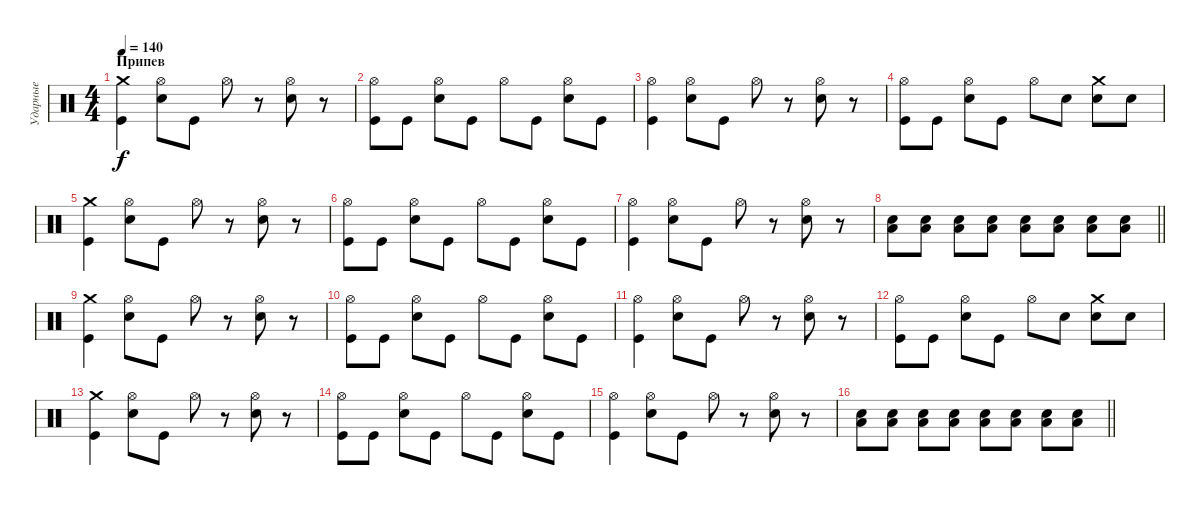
\track ("Ударные" "Ударные") {instrument percussion}
\staff {score}
\articulation defaults
\ts (4 4)
\section ("" "Припев")
\tempo 140
\clef neutral
\ks c
("Kick (hit)" "Crash medium (hit)").4{dy f} ("Electric Snare (hit)" "Hi-Hat (open)").8 "Kick (hit)".8 "Hi-Hat (open)".8 r.8 ("Electric Snare (hit)" "Hi-Hat (open)").8 r.8 |
("Kick (hit)" "Hi-Hat (open)").8 "Kick (hit)".8 ("Hi-Hat (open)" "Electric Snare (hit)").8 "Kick (hit)".8 "Hi-Hat (open)".8 "Kick (hit)".8 ("Electric Snare (hit)" "Hi-Hat (open)").8 "Kick (hit)".8 |
("Kick (hit)" "Hi-Hat (open)").4 ("Electric Snare (hit)" "Hi-Hat (open)").8 "Kick (hit)".8 "Hi-Hat (open)".8 r.8 ("Electric Snare (hit)" "Hi-Hat (open)").8 r.8 |
("Kick (hit)" "Hi-Hat (open)").8 "Kick (hit)".8 ("Hi-Hat (open)" "Electric Snare (hit)").8 "Kick (hit)".8 "Hi-Hat (open)".8 "Electric Snare (hit)".8 ("Electric Snare (hit)" "Crash medium (hit)").8 "Electric Snare (hit)".8 |
("Kick (hit)" "Crash medium (hit)").4 ("Electric Snare (hit)" "Hi-Hat (open)").8 "Kick (hit)".8 "Hi-Hat (open)".8 r.8 ("Electric Snare (hit)" "Hi-Hat (open)").8 r.8 |
("Kick (hit)" "Hi-Hat (open)").8 "Kick (hit)".8 ("Hi-Hat (open)" "Electric Snare (hit)").8 "Kick (hit)".8 "Hi-Hat (open)".8 "Kick (hit)".8 ("Electric Snare (hit)" "Hi-Hat (open)").8 "Kick (hit)".8 |
("Kick (hit)" "Hi-Hat (open)").4 ("Electric Snare (hit)" "Hi-Hat (open)").8 "Kick (hit)".8 "Hi-Hat (open)".8 r.8 ("Electric Snare (hit)" "Hi-Hat (open)").8 r.8 |
\barLineRight lightlight
("Low Floor Tom (hit)" "Electric Snare (hit)").8 ("Low Floor Tom (hit)" "Electric Snare (hit)").8 ("Low Floor Tom (hit)" "Electric Snare (hit)").8 ("Low Floor Tom (hit)" "Electric Snare (hit)").8 ("Low Floor Tom (hit)" "Electric Snare (hit)").8 ("Low Floor Tom (hit)" "Electric Snare (hit)").8 ("Low Floor Tom (hit)" "Electric Snare (hit)").8 ("Low Floor Tom (hit)" "Electric Snare (hit)").8 |
("Kick (hit)" "Crash medium (hit)").4 ("Electric Snare (hit)" "Hi-Hat (open)").8 "Kick (hit)".8 "Hi-Hat (open)".8 r.8 ("Electric Snare (hit)" "Hi-Hat (open)").8 r.8 |
("Kick (hit)" "Hi-Hat (open)").8 "Kick (hit)".8 ("Hi-Hat (open)" "Electric Snare (hit)").8 "Kick (hit)".8 "Hi-Hat (open)".8 "Kick (hit)".8 ("Electric Snare (hit)" "Hi-Hat (open)").8 "Kick (hit)".8 |
("Kick (hit)" "Hi-Hat (open)").4 ("Electric Snare (hit)" "Hi-Hat (open)").8 "Kick (hit)".8 "Hi-Hat (open)".8 r.8 ("Electric Snare (hit)" "Hi-Hat (open)").8 r.8 |
("Kick (hit)" "Hi-Hat (open)").8 "Kick (hit)".8 ("Hi-Hat (open)" "Electric Snare (hit)").8 "Kick (hit)".8 "Hi-Hat (open)".8 "Electric Snare (hit)".8 ("Electric Snare (hit)" "Crash medium (hit)").8 "Electric Snare (hit)".8 |
("Kick (hit)" "Crash medium (hit)").4 ("Electric Snare (hit)" "Hi-Hat (open)").8 "Kick (hit)".8 "Hi-Hat (open)".8 r.8 ("Electric Snare (hit)" "Hi-Hat (open)").8 r.8 |
("Kick (hit)" "Hi-Hat (open)").8 "Kick (hit)".8 ("Hi-Hat (open)" "Electric Snare (hit)").8 "Kick (hit)".8 "Hi-Hat (open)".8 "Kick (hit)".8 ("Electric Snare (hit)" "Hi-Hat (open)").8 "Kick (hit)".8 |
("Kick (hit)" "Hi-Hat (open)").4 ("Electric Snare (hit)" "Hi-Hat (open)").8 "Kick (hit)".8 "Hi-Hat (open)".8 r.8 ("Electric Snare (hit)" "Hi-Hat (open)").8 r.8 |
\barLineRight lightlight
("Low Floor Tom (hit)" "Electric Snare (hit)").8 ("Low Floor Tom (hit)" "Electric Snare (hit)").8 ("Low Floor Tom (hit)" "Electric Snare (hit)").8 ("Low Floor Tom (hit)" "Electric Snare (hit)").8 ("Low Floor Tom (hit)" "Electric Snare (hit)").8 ("Low Floor Tom (hit)" "Electric Snare (hit)").8 ("Low Floor Tom (hit)" "Electric Snare (hit)").8 ("Low Floor Tom (hit)" "Electric Snare (hit)").8
